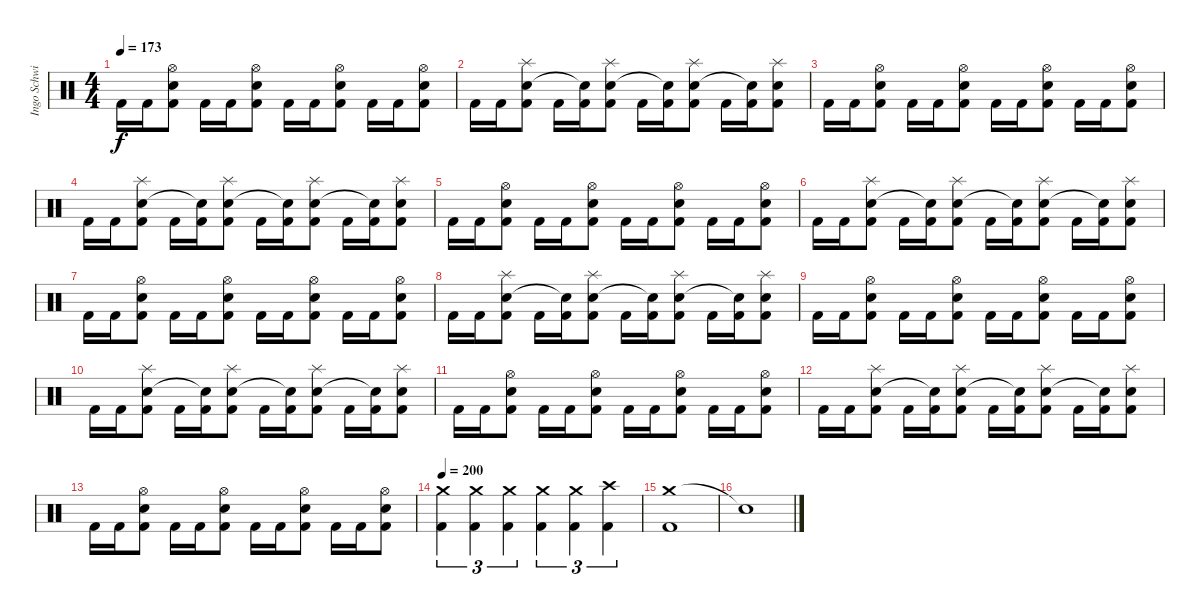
\track ("Ingo Schwichtenberg" "Ingo Schwi") {instrument percussion}
\staff {score}
\articulation defaults
\ts (4 4)
\tempo 173
\clef neutral
\ks c "Kick (hit) 2".16{dy f} "Kick (hit) 2".16
("Kick (hit) 2" "Snare (hit) 2" "Hi-Hat (open)").8 "Kick (hit) 2".16 "Kick (hit) 2".16 ("Kick (hit) 2" "Snare (hit) 2" "Hi-Hat (open)").8 "Kick (hit) 2".16 "Kick (hit) 2".16 ("Kick (hit) 2" "Snare (hit) 2" "Hi-Hat (open)").8 "Kick (hit) 2".16 "Kick (hit) 2".16 ("Kick (hit) 2" "Snare (hit) 2" "Hi-Hat (open)").8 |
"Kick (hit) 2".16 "Kick (hit) 2".16 ("Kick (hit) 2" "Snare (hit) 2" "Splash (hit)").8 "Kick (hit) 2".16 ("Kick (hit) 2" "Snare (hit)"{t}).16 ("Kick (hit) 2" "Snare (hit) 2" "Splash (hit)").8 "Kick (hit) 2".16 ("Kick (hit) 2" "Snare (hit)"{t}).16 ("Kick (hit) 2" "Snare (hit) 2" "Splash (hit)").8 "Kick (hit) 2".16 ("Kick (hit) 2" "Snare (hit)"{t}).16 ("Kick (hit) 2" "Snare (hit) 2" "Splash (hit)").8 |
"Kick (hit) 2".16 "Kick (hit) 2".16 ("Kick (hit) 2" "Snare (hit) 2" "Hi-Hat (open)").8 "Kick (hit) 2".16 "Kick (hit) 2".16 ("Kick (hit) 2" "Snare (hit) 2" "Hi-Hat (open)").8 "Kick (hit) 2".16 "Kick (hit) 2".16 ("Kick (hit) 2" "Snare (hit) 2" "Hi-Hat (open)").8 "Kick (hit) 2".16 "Kick (hit) 2".16 ("Kick (hit) 2" "Snare (hit) 2" "Hi-Hat (open)").8 |
"Kick (hit) 2".16 "Kick (hit) 2".16 ("Kick (hit) 2" "Snare (hit) 2" "Splash (hit)").8 "Kick (hit) 2".16 ("Kick (hit) 2" "Snare (hit)"{t}).16 ("Kick (hit) 2" "Snare (hit) 2" "Splash (hit)").8 "Kick (hit) 2".16 ("Kick (hit) 2" "Snare (hit)"{t}).16 ("Kick (hit) 2" "Snare (hit) 2" "Splash (hit)").8 "Kick (hit) 2".16 ("Kick (hit) 2" "Snare (hit)"{t}).16 ("Kick (hit) 2" "Snare (hit) 2" "Splash (hit)").8 |
"Kick (hit) 2".16 "Kick (hit) 2".16 ("Kick (hit) 2" "Snare (hit) 2" "Hi-Hat (open)").8 "Kick (hit) 2".16 "Kick (hit) 2".16 ("Kick (hit) 2" "Snare (hit) 2" "Hi-Hat (open)").8 "Kick (hit) 2".16 "Kick (hit) 2".16 ("Kick (hit) 2" "Snare (hit) 2" "Hi-Hat (open)").8 "Kick (hit) 2".16 "Kick (hit) 2".16 ("Kick (hit) 2" "Snare (hit) 2" "Hi-Hat (open)").8 |
"Kick (hit) 2".16 "Kick (hit) 2".16 ("Kick (hit) 2" "Snare (hit) 2" "Splash (hit)").8 "Kick (hit) 2".16 ("Kick (hit) 2" "Snare (hit)"{t}).16 ("Kick (hit) 2" "Snare (hit) 2" "Splash (hit)").8 "Kick (hit) 2".16 ("Kick (hit) 2" "Snare (hit)"{t}).16 ("Kick (hit) 2" "Snare (hit) 2" "Splash (hit)").8 "Kick (hit) 2".16 ("Kick (hit) 2" "Snare (hit)"{t}).16 ("Kick (hit) 2" "Snare (hit) 2" "Splash (hit)").8 |
"Kick (hit) 2".16 "Kick (hit) 2".16 ("Kick (hit) 2" "Snare (hit) 2" "Hi-Hat (open)").8 "Kick (hit) 2".16 "Kick (hit) 2".16 ("Kick (hit) 2" "Snare (hit) 2" "Hi-Hat (open)").8 "Kick (hit) 2".16 "Kick (hit) 2".16 ("Kick (hit) 2" "Snare (hit) 2" "Hi-Hat (open)").8 "Kick (hit) 2".16 "Kick (hit) 2".16 ("Kick (hit) 2" "Snare (hit) 2" "Hi-Hat (open)").8 |
"Kick (hit) 2".16 "Kick (hit) 2".16 ("Kick (hit) 2" "Snare (hit) 2" "Splash (hit)").8 "Kick (hit) 2".16 ("Kick (hit) 2" "Snare (hit)"{t}).16 ("Kick (hit) 2" "Snare (hit) 2" "Splash (hit)").8 "Kick (hit) 2".16 ("Kick (hit) 2" "Snare (hit)"{t}).16 ("Kick (hit) 2" "Snare (hit) 2" "Splash (hit)").8 "Kick (hit) 2".16 ("Kick (hit) 2" "Snare (hit)"{t}).16 ("Kick (hit) 2" "Snare (hit) 2" "Splash (hit)").8 |
"Kick (hit) 2".16 "Kick (hit) 2".16 ("Kick (hit) 2" "Snare (hit) 2" "Hi-Hat (open)").8 "Kick (hit) 2".16 "Kick (hit) 2".16 ("Kick (hit) 2" "Snare (hit) 2" "Hi-Hat (open)").8 "Kick (hit) 2".16 "Kick (hit) 2".16 ("Kick (hit) 2" "Snare (hit) 2" "Hi-Hat (open)").8 "Kick (hit) 2".16 "Kick (hit) 2".16 ("Kick (hit) 2" "Snare (hit) 2" "Hi-Hat (open)").8 |
"Kick (hit) 2".16 "Kick (hit) 2".16 ("Kick (hit) 2" "Snare (hit) 2" "Splash (hit)").8 "Kick (hit) 2".16 ("Kick (hit) 2" "Snare (hit)"{t}).16 ("Kick (hit) 2" "Snare (hit) 2" "Splash (hit)").8 "Kick (hit) 2".16 ("Kick (hit) 2" "Snare (hit)"{t}).16 ("Kick (hit) 2" "Snare (hit) 2" "Splash (hit)").8 "Kick (hit) 2".16 ("Kick (hit) 2" "Snare (hit)"{t}).16 ("Kick (hit) 2" "Snare (hit) 2" "Splash (hit)").8 |
"Kick (hit) 2".16 "Kick (hit) 2".16 ("Kick (hit) 2" "Snare (hit) 2" "Hi-Hat (open)").8 "Kick (hit) 2".16 "Kick (hit) 2".16 ("Kick (hit) 2" "Snare (hit) 2" "Hi-Hat (open)").8 "Kick (hit) 2".16 "Kick (hit) 2".16 ("Kick (hit) 2" "Snare (hit) 2" "Hi-Hat (open)").8 "Kick (hit) 2".16 "Kick (hit) 2".16 ("Kick (hit) 2" "Snare (hit) 2" "Hi-Hat (open)").8 |
"Kick (hit) 2".16 "Kick (hit) 2".16 ("Kick (hit) 2" "Snare (hit) 2" "Splash (hit)").8 "Kick (hit) 2".16 ("Kick (hit) 2" "Snare (hit)"{t}).16 ("Kick (hit) 2" "Snare (hit) 2" "Splash (hit)").8 "Kick (hit) 2".16 ("Kick (hit) 2" "Snare (hit)"{t}).16 ("Kick (hit) 2" "Snare (hit) 2" "Splash (hit)").8 "Kick (hit) 2".16 ("Kick (hit) 2" "Snare (hit)"{t}).16 ("Kick (hit) 2" "Snare (hit) 2" "Splash (hit)").8 |
"Kick (hit) 2".16 "Kick (hit) 2".16 ("Kick (hit) 2" "Snare (hit) 2" "Hi-Hat (open)").8 "Kick (hit) 2".16 "Kick (hit) 2".16 ("Kick (hit) 2" "Snare (hit) 2" "Hi-Hat (open)").8 "Kick (hit) 2".16 "Kick (hit) 2".16 ("Kick (hit) 2" "Snare (hit) 2" "Hi-Hat (open)").8 "Kick (hit) 2".16 "Kick (hit) 2".16 ("Kick (hit) 2" "Snare (hit) 2" "Hi-Hat (open)").8 |
\tempo 200
("Crash medium (hit)" "Kick (hit) 2").4{tu (3 2)} ("Crash medium (hit)" "Kick (hit) 2").4{tu (3 2)} ("Crash medium (hit)" "Kick (hit) 2").4{tu (3 2)} ("Crash medium (hit)" "Kick (hit) 2").4{tu (3 2)} ("Crash medium (hit)" "Kick (hit) 2").4{tu (3 2)} ("Crash high (hit)" "Kick (hit) 2").4{tu (3 2)} |
("Crash medium (hit)" "Kick (hit) 2").1 |
"Snare (hit)"{t}.1
